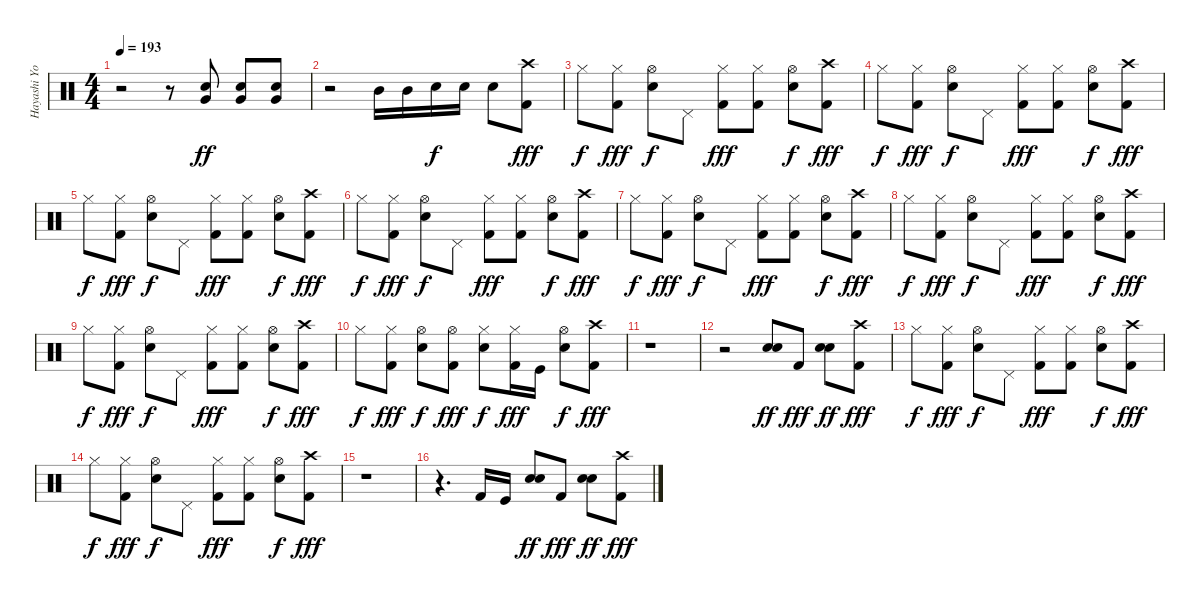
\track ("Hayashi Yoshiki(Yoshiki)" "Hayashi Yo") {instrument percussion}
\staff {score}
\articulation defaults
\ts (4 4)
\tempo 193
\clef neutral
\ks c
r.2{dy ff} r.8 ("Very Low Tom (hit)" "Electric Snare (hit)").8 ("Very Low Tom (hit)" "Electric Snare (hit)").8 ("Very Low Tom (hit)" "Electric Snare (hit)").8 |
r.2 "Mid Tom (hit)".16 "Mid Tom (hit)".16 "Electric Snare (hit)".16{dy f} "Electric Snare (hit)".16 "Electric Snare (hit)".8 ("Crash high (hit)" "Kick (hit) 2").8{dy fff} |
"Hi-Hat (closed)".8{dy f} ("Hi-Hat (closed)" "Kick (hit) 2").8{dy fff} ("Hi-Hat (open)" "Electric Snare (hit)").8{dy f} "Pedal Hi-Hat (hit)".8 ("Hi-Hat (closed)" "Kick (hit) 2").8{dy fff} ("Hi-Hat (closed)" "Kick (hit) 2").8 ("Hi-Hat (open)" "Electric Snare (hit)").8{dy f} ("Crash high (hit)" "Kick (hit) 2").8{dy fff} |
"Hi-Hat (closed)".8{dy f} ("Hi-Hat (closed)" "Kick (hit) 2").8{dy fff} ("Hi-Hat (open)" "Electric Snare (hit)").8{dy f} "Pedal Hi-Hat (hit)".8 ("Hi-Hat (closed)" "Kick (hit) 2").8{dy fff} ("Hi-Hat (closed)" "Kick (hit) 2").8 ("Hi-Hat (open)" "Electric Snare (hit)").8{dy f} ("Crash high (hit)" "Kick (hit) 2").8{dy fff} |
"Hi-Hat (closed)".8{dy f} ("Hi-Hat (closed)" "Kick (hit) 2").8{dy fff} ("Hi-Hat (open)" "Electric Snare (hit)").8{dy f} "Pedal Hi-Hat (hit)".8 ("Hi-Hat (closed)" "Kick (hit) 2").8{dy fff} ("Hi-Hat (closed)" "Kick (hit) 2").8 ("Hi-Hat (open)" "Electric Snare (hit)").8{dy f} ("Crash high (hit)" "Kick (hit) 2").8{dy fff} |
"Hi-Hat (closed)".8{dy f} ("Hi-Hat (closed)" "Kick (hit) 2").8{dy fff} ("Hi-Hat (open)" "Electric Snare (hit)").8{dy f} "Pedal Hi-Hat (hit)".8 ("Hi-Hat (closed)" "Kick (hit) 2").8{dy fff} ("Hi-Hat (closed)" "Kick (hit) 2").8 ("Hi-Hat (open)" "Electric Snare (hit)").8{dy f} ("Crash high (hit)" "Kick (hit) 2").8{dy fff} |
"Hi-Hat (closed)".8{dy f} ("Hi-Hat (closed)" "Kick (hit) 2").8{dy fff} ("Hi-Hat (open)" "Electric Snare (hit)").8{dy f} "Pedal Hi-Hat (hit)".8 ("Hi-Hat (closed)" "Kick (hit) 2").8{dy fff} ("Hi-Hat (closed)" "Kick (hit) 2").8 ("Hi-Hat (open)" "Electric Snare (hit)").8{dy f} ("Crash high (hit)" "Kick (hit) 2").8{dy fff} |
"Hi-Hat (closed)".8{dy f} ("Hi-Hat (closed)" "Kick (hit) 2").8{dy fff} ("Hi-Hat (open)" "Electric Snare (hit)").8{dy f} "Pedal Hi-Hat (hit)".8 ("Hi-Hat (closed)" "Kick (hit) 2").8{dy fff} ("Hi-Hat (closed)" "Kick (hit) 2").8 ("Hi-Hat (open)" "Electric Snare (hit)").8{dy f} ("Crash high (hit)" "Kick (hit) 2").8{dy fff} |
"Hi-Hat (closed)".8{dy f} ("Hi-Hat (closed)" "Kick (hit) 2").8{dy fff} ("Hi-Hat (open)" "Electric Snare (hit)").8{dy f} "Pedal Hi-Hat (hit)".8 ("Hi-Hat (closed)" "Kick (hit) 2").8{dy fff} ("Hi-Hat (closed)" "Kick (hit) 2").8 ("Hi-Hat (open)" "Electric Snare (hit)").8{dy f} ("Crash high (hit)" "Kick (hit) 2").8{dy fff} |
"Hi-Hat (closed)".8{dy f} ("Hi-Hat (closed)" "Kick (hit) 2").8{dy fff} ("Hi-Hat (open)" "Electric Snare (hit)").8{dy f} ("Hi-Hat (open)" "Kick (hit) 2").8{dy fff} ("Hi-Hat (closed)" "Electric Snare (hit)").8{dy f} ("Hi-Hat (closed)" "Kick (hit) 2").16{dy fff} "Kick (hit)".16 ("Hi-Hat (open)" "Electric Snare (hit)").8{dy f} ("Crash high (hit)" "Kick (hit) 2").8{dy fff} |
r.1 |
r.2 ("Electric Snare (hit)" "Electric Snare (hit)").8{dy ff} "Kick (hit) 2".8{dy fff} ("Electric Snare (hit)" "Electric Snare (hit)").8{dy ff} ("Crash high (hit)" "Kick (hit) 2").8{dy fff} |
"Hi-Hat (closed)".8{dy f} ("Hi-Hat (closed)" "Kick (hit) 2").8{dy fff} ("Hi-Hat (open)" "Electric Snare (hit)").8{dy f} "Pedal Hi-Hat (hit)".8 ("Hi-Hat (closed)" "Kick (hit) 2").8{dy fff} ("Hi-Hat (closed)" "Kick (hit) 2").8 ("Hi-Hat (open)" "Electric Snare (hit)").8{dy f} ("Crash high (hit)" "Kick (hit) 2").8{dy fff} |
"Hi-Hat (closed)".8{dy f} ("Hi-Hat (closed)" "Kick (hit) 2").8{dy fff} ("Hi-Hat (open)" "Electric Snare (hit)").8{dy f} "Pedal Hi-Hat (hit)".8 ("Hi-Hat (closed)" "Kick (hit) 2").8{dy fff} ("Hi-Hat (closed)" "Kick (hit) 2").8 ("Hi-Hat (open)" "Electric Snare (hit)").8{dy f} ("Crash high (hit)" "Kick (hit) 2").8{dy fff} |
r.1 |
r.4{d} "Kick (hit) 2".16 "Kick (hit)".16 ("Electric Snare (hit)" "Electric Snare (hit)").8{dy ff} "Kick (hit) 2".8{dy fff} ("Electric Snare (hit)" "Electric Snare (hit)").8{dy ff} ("Crash high (hit)" "Kick (hit) 2").8{dy fff}
